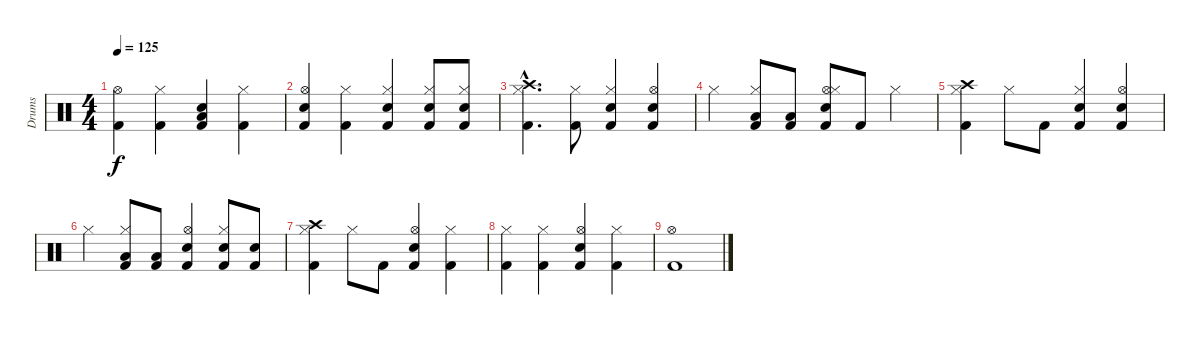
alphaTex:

\track ("Drums" "Drums") {instrument percussion}
\staff {score}
\articulation defaults
\ts (4 4)
\tempo 125
\clef neutral
\ks c
("Kick (hit) 2" "Hi-Hat (open)").4{dy f} ("Kick (hit) 2" "Hi-Hat (closed)").4 ("Electric Snare (hit)" "Kick (hit) 2" "Low Tom (hit)").4 ("Kick (hit) 2" "Hi-Hat (closed)").4 |
("Electric Snare (hit)" "Kick (hit) 2" "Hi-Hat (open)").4 ("Kick (hit) 2" "Hi-Hat (closed)").4 ("Electric Snare (hit)" "Kick (hit) 2" "Hi-Hat (closed)").4 ("Electric Snare (hit)" "Kick (hit) 2" "Hi-Hat (closed)").8 ("Electric Snare (hit)" "Kick (hit) 2" "Hi-Hat (closed)").8 |
("Kick (hit) 2"{hac} "Crash high (hit)"{hac} "Hi-Hat (closed)"{hac}).4{d} ("Kick (hit) 2" "Hi-Hat (closed)").8 ("Electric Snare (hit)" "Kick (hit) 2" "Hi-Hat (closed)").4 ("Electric Snare (hit)" "Kick (hit) 2" "Hi-Hat (open)").4 |
"Hi-Hat (closed)".4 ("Low Tom (hit)" "Kick (hit) 2" "Hi-Hat (closed)").8 ("Low Tom (hit)" "Kick (hit) 2").8 ("Electric Snare (hit)" "Kick (hit) 2" "Hi-Hat (open)" "Hi-Hat (closed)").8 "Kick (hit) 2".8 "Hi-Hat (closed)".4 |
("Kick (hit) 2" "Crash high (hit)" "Hi-Hat (closed)").4 "Hi-Hat (closed)".8 "Kick (hit) 2".8 ("Electric Snare (hit)" "Kick (hit) 2" "Hi-Hat (closed)").4 ("Electric Snare (hit)" "Kick (hit) 2" "Hi-Hat (open)").4 |
"Hi-Hat (closed)".4 ("Low Tom (hit)" "Kick (hit) 2" "Hi-Hat (closed)").8 ("Low Tom (hit)" "Kick (hit) 2").8 ("Electric Snare (hit)" "Kick (hit) 2" "Hi-Hat (open)").4 ("Electric Snare (hit)" "Kick (hit) 2" "Hi-Hat (closed)").8 ("Electric Snare (hit)" "Kick (hit) 2").8 |
("Kick (hit) 2" "Crash high (hit)" "Hi-Hat (closed)").4 "Hi-Hat (closed)".8 "Kick (hit) 2".8 ("Electric Snare (hit)" "Kick (hit) 2" "Hi-Hat (open)").4 ("Kick (hit) 2" "Hi-Hat (closed)").4 |
("Kick (hit) 2" "Hi-Hat (closed)").4 ("Kick (hit) 2" "Hi-Hat (closed)").4 ("Electric Snare (hit)" "Kick (hit) 2" "Hi-Hat (open)").4 ("Kick (hit) 2" "Hi-Hat (closed)").4 |
("Kick (hit) 2" "Hi-Hat (open)").1
